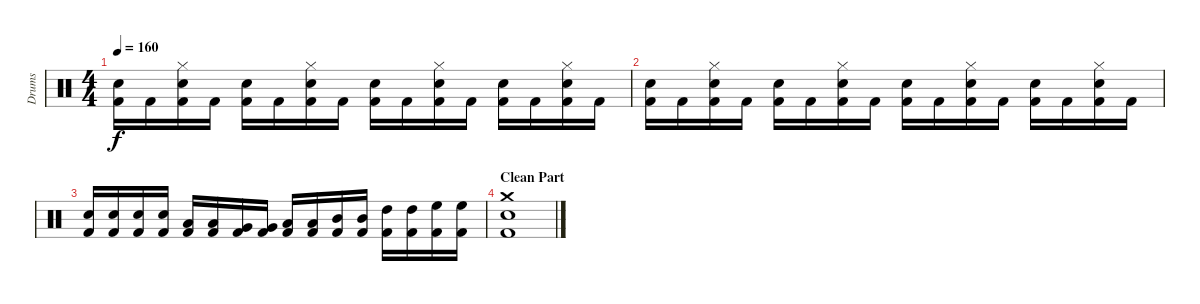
\track ("Drums" "Drums") {instrument percussion}
\staff {score}
\articulation defaults
\ts (4 4)
\tempo 160
\clef neutral
\ks c
("Kick (hit) 2" "Snare (hit) 2").16{dy f} "Kick (hit) 2".16 ("Kick (hit) 2" "Snare (hit) 2" "Hi-Hat (closed)").16 "Kick (hit) 2".16 ("Kick (hit) 2" "Snare (hit) 2").16 "Kick (hit) 2".16 ("Kick (hit) 2" "Snare (hit) 2" "Hi-Hat (closed)").16 "Kick (hit) 2".16 ("Kick (hit) 2" "Snare (hit) 2").16 "Kick (hit) 2".16 ("Kick (hit) 2" "Snare (hit) 2" "Hi-Hat (closed)").16 "Kick (hit) 2".16 ("Kick (hit) 2" "Snare (hit) 2").16 "Kick (hit) 2".16 ("Kick (hit) 2" "Snare (hit) 2" "Hi-Hat (closed)").16 "Kick (hit) 2".16 |
("Kick (hit) 2" "Snare (hit) 2").16 "Kick (hit) 2".16 ("Kick (hit) 2" "Snare (hit) 2" "Hi-Hat (closed)").16 "Kick (hit) 2".16 ("Kick (hit) 2" "Snare (hit) 2").16 "Kick (hit) 2".16 ("Kick (hit) 2" "Snare (hit) 2" "Hi-Hat (closed)").16 "Kick (hit) 2".16 ("Kick (hit) 2" "Snare (hit) 2").16 "Kick (hit) 2".16 ("Kick (hit) 2" "Snare (hit) 2" "Hi-Hat (closed)").16 "Kick (hit) 2".16 ("Kick (hit) 2" "Snare (hit) 2").16 "Kick (hit) 2".16 ("Kick (hit) 2" "Snare (hit) 2" "Hi-Hat (closed)").16 "Kick (hit) 2".16 |
("Kick (hit) 2" "Snare (hit) 2").16 ("Kick (hit) 2" "Snare (hit) 2").16 ("Kick (hit) 2" "Snare (hit) 2").16 ("Kick (hit) 2" "Snare (hit) 2").16 ("Kick (hit) 2" "Low Floor Tom (hit)").16 ("Kick (hit) 2" "Low Floor Tom (hit)").16 ("Kick (hit) 2" "Very Low Tom (hit)").16 ("Kick (hit) 2" "Very Low Tom (hit)").16 ("Kick (hit) 2" "Low Tom (hit)").16 ("Kick (hit) 2" "Low Tom (hit)").16 ("Kick (hit) 2" "Mid Tom (hit)").16 ("Kick (hit) 2" "Mid Tom (hit)").16 ("Kick (hit) 2" "High Tom (hit)").16 ("Kick (hit) 2" "High Tom (hit)").16 ("Kick (hit) 2" "High Floor Tom (hit)").16 ("Kick (hit) 2" "High Floor Tom (hit)").16 |
\section ("" "Clean Part")
("Kick (hit) 2" "Snare (hit) 2" "Crash medium (hit)").1
